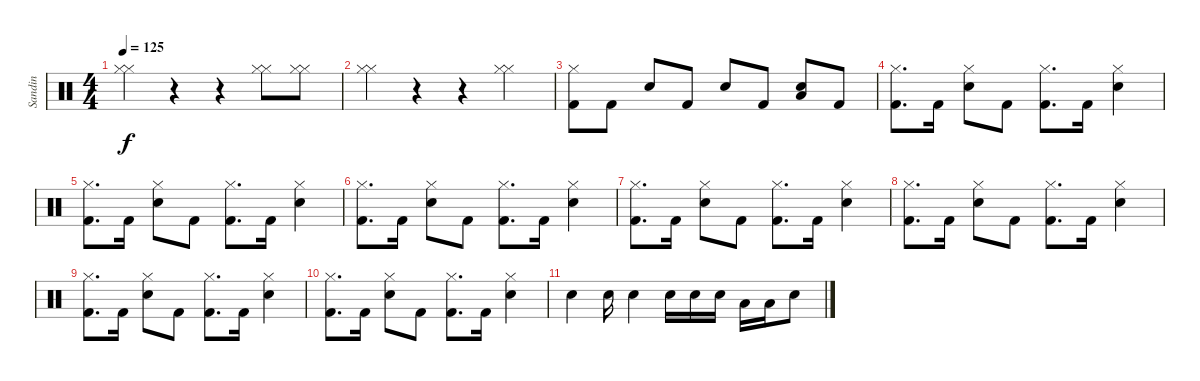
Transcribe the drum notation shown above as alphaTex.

\track ("Sandin" "Sandin") {instrument percussion}
\staff {score}
\articulation defaults
\ts (4 4)
\tempo 125
\clef neutral
\ks c
("Hi-Hat (closed)" "Hi-Hat (closed)").4{dy f} r.4 r.4 ("Hi-Hat (closed)" "Hi-Hat (closed)").8 ("Hi-Hat (closed)" "Hi-Hat (closed)").8 |
("Hi-Hat (closed)" "Hi-Hat (closed)").4 r.4 r.4 ("Hi-Hat (closed)" "Hi-Hat (closed)").4 |
("Hi-Hat (closed)" "Kick (hit) 2").8 "Kick (hit) 2".8 "Electric Snare (hit)".8 "Kick (hit) 2".8 "Electric Snare (hit)".8 "Kick (hit) 2".8 ("Low Tom (hit)" "Electric Snare (hit)").8 "Kick (hit) 2".8 |
("Hi-Hat (closed)" "Kick (hit) 2").8{d} "Kick (hit) 2".16 ("Hi-Hat (closed)" "Electric Snare (hit)").8 "Kick (hit) 2".8 ("Hi-Hat (closed)" "Kick (hit) 2").8{d} "Kick (hit) 2".16 ("Electric Snare (hit)" "Hi-Hat (closed)").4 |
("Hi-Hat (closed)" "Kick (hit) 2").8{d} "Kick (hit) 2".16 ("Hi-Hat (closed)" "Electric Snare (hit)").8 "Kick (hit) 2".8 ("Hi-Hat (closed)" "Kick (hit) 2").8{d} "Kick (hit) 2".16 ("Electric Snare (hit)" "Hi-Hat (closed)").4 |
("Hi-Hat (closed)" "Kick (hit) 2").8{d} "Kick (hit) 2".16 ("Hi-Hat (closed)" "Electric Snare (hit)").8 "Kick (hit) 2".8 ("Hi-Hat (closed)" "Kick (hit) 2").8{d} "Kick (hit) 2".16 ("Electric Snare (hit)" "Hi-Hat (closed)").4 |
("Hi-Hat (closed)" "Kick (hit) 2").8{d} "Kick (hit) 2".16 ("Hi-Hat (closed)" "Electric Snare (hit)").8 "Kick (hit) 2".8 ("Hi-Hat (closed)" "Kick (hit) 2").8{d} "Kick (hit) 2".16 ("Electric Snare (hit)" "Hi-Hat (closed)").4 |
("Hi-Hat (closed)" "Kick (hit) 2").8{d} "Kick (hit) 2".16 ("Hi-Hat (closed)" "Electric Snare (hit)").8 "Kick (hit) 2".8 ("Hi-Hat (closed)" "Kick (hit) 2").8{d} "Kick (hit) 2".16 ("Electric Snare (hit)" "Hi-Hat (closed)").4 |
("Hi-Hat (closed)" "Kick (hit) 2").8{d} "Kick (hit) 2".16 ("Hi-Hat (closed)" "Electric Snare (hit)").8 "Kick (hit) 2".8 ("Hi-Hat (closed)" "Kick (hit) 2").8{d} "Kick (hit) 2".16 ("Electric Snare (hit)" "Hi-Hat (closed)").4 |
("Hi-Hat (closed)" "Kick (hit) 2").8{d} "Kick (hit) 2".16 ("Hi-Hat (closed)" "Electric Snare (hit)").8 "Kick (hit) 2".8 ("Hi-Hat (closed)" "Kick (hit) 2").8{d} "Kick (hit) 2".16 ("Electric Snare (hit)" "Hi-Hat (closed)").4 |
"Electric Snare (hit)".4 "Electric Snare (hit)".16 "Electric Snare (hit)".4 "Electric Snare (hit)".16 "Electric Snare (hit)".16 "Electric Snare (hit)".16 "Low Tom (hit)".16 "Low Tom (hit)".16 "Electric Snare (hit)".8
